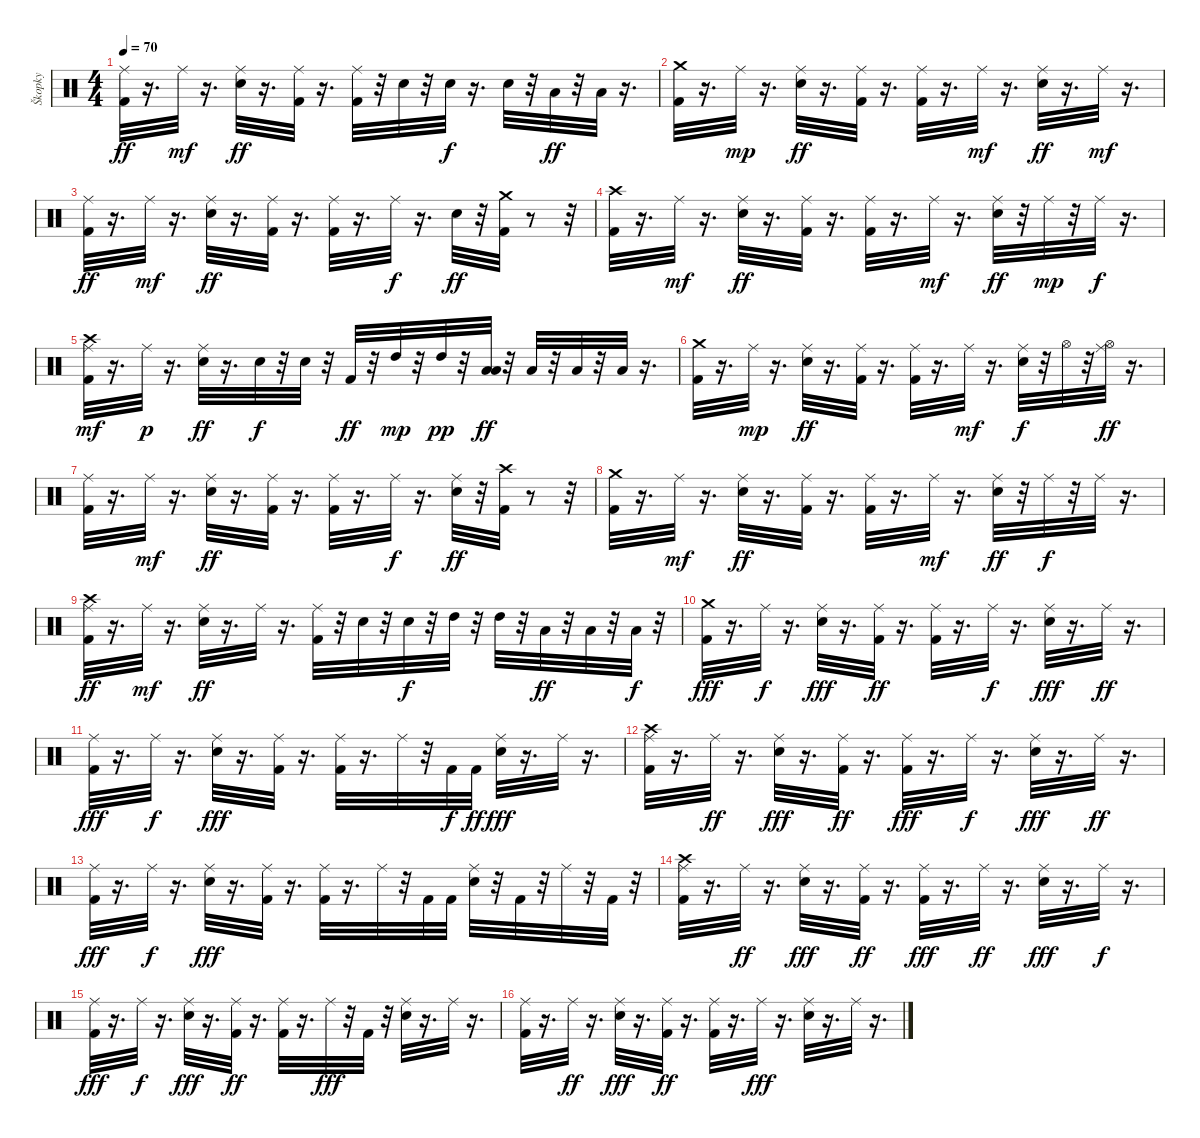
\track ("Škopky" "Škopky") {instrument percussion}
\staff {score}
\articulation defaults
\ts (4 4)
\tempo 70
\clef neutral
\ks c
("Kick (hit) 2" "Ride (middle)").32{dy ff} r.16{d} "Ride (middle)".32{dy mf} r.16{d} ("Snare (hit) 2" "Ride (middle)").32{dy ff} r.16{d} ("Kick (hit) 2" "Ride (middle)").32 r.16{d} ("Kick (hit) 2" "Ride (middle)").32 r.32 "Snare (hit) 2".32 r.32 "Snare (hit) 2".32{dy f} r.16{d} "Snare (hit) 2".32 r.32 "Low Tom (hit)".32{dy ff} r.32 "Low Floor Tom (hit)".32 r.16{d} |
("Kick (hit) 2" "Crash medium (hit)").32 r.16{d} "Ride (middle)".32{dy mp} r.16{d} ("Snare (hit) 2" "Ride (middle)").32{dy ff} r.16{d} ("Kick (hit) 2" "Ride (middle)").32 r.16{d} ("Kick (hit) 2" "Ride (middle)").32 r.16{d} "Ride (middle)".32{dy mf} r.16{d} ("Snare (hit) 2" "Ride (middle)").32{dy ff} r.16{d} "Ride (middle)".32{dy mf} r.16{d} |
("Kick (hit) 2" "Ride (middle)").32{dy ff} r.16{d} "Ride (middle)".32{dy mf} r.16{d} ("Snare (hit) 2" "Ride (middle)").32{dy ff} r.16{d} ("Ride (middle)" "Kick (hit) 2").32 r.16{d} ("Kick (hit) 2" "Ride (middle)").32 r.16{d} "Ride (middle)".32{dy f} r.16{d} "Snare (hit) 2".32{dy ff} r.32 ("Kick (hit) 2" "Crash medium (hit)").32 r.8 r.32 |
("Crash high (hit)" "Kick (hit) 2").32 r.16{d} "Ride (middle)".32{dy mf} r.16{d} ("Snare (hit) 2" "Ride (middle)").32{dy ff} r.16{d} ("Kick (hit) 2" "Ride (middle)").32 r.16{d} ("Kick (hit) 2" "Ride (middle)").32 r.16{d} "Ride (middle)".32{dy mf} r.16{d} ("Snare (hit) 2" "Ride (middle)").32{dy ff} r.32 "Ride (middle)".32{dy mp} r.32 "Ride (middle)".32{dy f} r.16{d} |
("Kick (hit) 2" "Crash high (hit)" "Ride (middle)").32{dy mf} r.16{d} "Ride (middle)".32{dy p} r.16{d} ("Snare (hit) 2" "Ride (middle)").32{dy ff} r.16{d} "Snare (hit) 2".32{dy f} r.32 "Snare (hit) 2".32 r.32 "Kick (hit) 2".32{dy ff} r.32 "High Tom (hit)".32{dy mp} r.32 "High Tom (hit)".32{dy pp} r.32 ("Low Tom (hit)" "Low Tom (hit)").32{dy ff} r.32 "Low Tom (hit)".32 r.32 "Low Tom (hit)".32 r.32 "Low Floor Tom (hit)".32 r.16{d} |
("Crash medium (hit)" "Kick (hit) 2").32 r.16{d} "Ride (middle)".32{dy mp} r.16{d} ("Snare (hit) 2" "Ride (middle)").32{dy ff} r.16{d} ("Kick (hit) 2" "Ride (middle)").32 r.16{d} ("Kick (hit) 2" "Ride (middle)").32 r.16{d} "Ride (middle)".32{dy mf} r.16{d} ("Snare (hit) 2" "Ride (middle)").32{dy f} r.32 "Hi-Hat (open)".32 r.32 ("Hi-Hat (open)" "Ride (middle)").32{dy ff} r.16{d} |
("Kick (hit) 2" "Ride (middle)").32 r.16{d} "Ride (middle)".32{dy mf} r.16{d} ("Snare (hit) 2" "Ride (middle)").32{dy ff} r.16{d} ("Kick (hit) 2" "Ride (middle)").32 r.16{d} ("Kick (hit) 2" "Ride (middle)").32 r.16{d} "Ride (middle)".32{dy f} r.16{d} ("Snare (hit) 2" "Ride (middle)").32{dy ff} r.32 ("Crash high (hit)" "Kick (hit) 2").32 r.8 r.32 |
("Kick (hit) 2" "Crash medium (hit)").32 r.16{d} "Ride (middle)".32{dy mf} r.16{d} ("Snare (hit) 2" "Ride (middle)").32{dy ff} r.16{d} ("Kick (hit) 2" "Ride (middle)").32 r.16{d} ("Kick (hit) 2" "Ride (middle)").32 r.16{d} "Ride (middle)".32{dy mf} r.16{d} ("Snare (hit) 2" "Ride (middle)").32{dy ff} r.32 "Ride (middle)".32{dy f} r.32 "Ride (middle)".32 r.16{d} |
("Kick (hit) 2" "Crash high (hit)" "Ride (middle)").32{dy ff} r.16{d} "Ride (middle)".32{dy mf} r.16{d} ("Snare (hit) 2" "Ride (middle)").32{dy ff} r.16{d} "Ride (middle)".32 r.16{d} ("Kick (hit) 2" "Ride (middle)").32 r.32 "Snare (hit) 2".32 r.32 "Snare (hit) 2".32{dy f} r.32 "High Tom (hit)".32 r.32 "High Tom (hit)".32 r.32 "Low Tom (hit)".32{dy ff} r.32 "Low Tom (hit)".32 r.32 "Low Floor Tom (hit)".32{dy f} r.32 |
("Kick (hit) 2" "Crash medium (hit)").32{dy fff} r.16{d} "Ride (middle)".32{dy f} r.16{d} ("Ride (middle)" "Snare (hit) 2").32{dy fff} r.16{d} ("Kick (hit) 2" "Ride (middle)").32{dy ff} r.16{d} ("Kick (hit) 2" "Ride (middle)").32 r.16{d} "Ride (middle)".32{dy f} r.16{d} ("Snare (hit) 2" "Ride (middle)").32{dy fff} r.16{d} "Ride (middle)".32{dy ff} r.16{d} |
("Kick (hit) 2" "Ride (middle)").32{dy fff} r.16{d} "Ride (middle)".32{dy f} r.16{d} ("Snare (hit) 2" "Ride (middle)").32{dy fff} r.16{d} ("Kick (hit) 2" "Ride (middle)").32 r.16{d} ("Ride (middle)" "Kick (hit) 2").32 r.16{d} "Ride (middle)".32 r.32 "Kick (hit) 2".32{dy f} "Kick (hit) 2".32{dy ff} ("Snare (hit) 2" "Ride (middle)").32{dy fff} r.16{d} "Ride (middle)".32 r.16{d} |
("Crash high (hit)" "Kick (hit) 2" "Ride (middle)").32 r.16{d} "Ride (middle)".32{dy ff} r.16{d} ("Ride (middle)" "Snare (hit) 2").32{dy fff} r.16{d} ("Kick (hit) 2" "Ride (middle)").32{dy ff} r.16{d} ("Kick (hit) 2" "Ride (middle)").32{dy fff} r.16{d} "Ride (middle)".32{dy f} r.16{d} ("Ride (middle)" "Snare (hit) 2").32{dy fff} r.16{d} "Ride (middle)".32{dy ff} r.16{d} |
("Kick (hit) 2" "Ride (middle)").32{dy fff} r.16{d} "Ride (middle)".32{dy f} r.16{d} ("Ride (middle)" "Snare (hit) 2").32{dy fff} r.16{d} ("Kick (hit) 2" "Ride (middle)").32 r.16{d} ("Kick (hit) 2" "Ride (middle)").32 r.16{d} "Ride (middle)".32 r.32 "Kick (hit) 2".32 "Kick (hit) 2".32 ("Snare (hit) 2" "Ride (middle)").32 r.32 "Kick (hit) 2".32 r.32 "Ride (middle)".32 r.32 "Kick (hit) 2".32 r.32 |
("Kick (hit) 2" "Crash high (hit)" "Ride (middle)").32 r.16{d} "Ride (middle)".32{dy ff} r.16{d} ("Snare (hit) 2" "Ride (middle)").32{dy fff} r.16{d} ("Kick (hit) 2" "Ride (middle)").32{dy ff} r.16{d} ("Kick (hit) 2" "Ride (middle)").32{dy fff} r.16{d} "Ride (middle)".32{dy ff} r.16{d} ("Snare (hit) 2" "Ride (middle)").32{dy fff} r.16{d} "Ride (middle)".32{dy f} r.16{d} |
("Kick (hit) 2" "Ride (middle)").32{dy fff} r.16{d} "Ride (middle)".32{dy f} r.16{d} ("Snare (hit) 2" "Ride (middle)").32{dy fff} r.16{d} ("Kick (hit) 2" "Ride (middle)").32{dy ff} r.16{d} ("Kick (hit) 2" "Ride (middle)").32 r.16{d} "Ride (middle)".32{dy fff} r.32 "Kick (hit) 2".32 r.32 ("Snare (hit) 2" "Ride (middle)").32 r.16{d} "Ride (middle)".32 r.16{d} |
("Kick (hit) 2" "Ride (middle)").32 r.16{d} "Ride (middle)".32{dy ff} r.16{d} ("Snare (hit) 2" "Ride (middle)").32{dy fff} r.16{d} ("Kick (hit) 2" "Ride (middle)").32{dy ff} r.16{d} ("Kick (hit) 2" "Ride (middle)").32 r.16{d} "Ride (middle)".32{dy fff} r.16{d} ("Ride (middle)" "Snare (hit) 2").32 r.16{d} "Ride (middle)".32 r.16{d}
